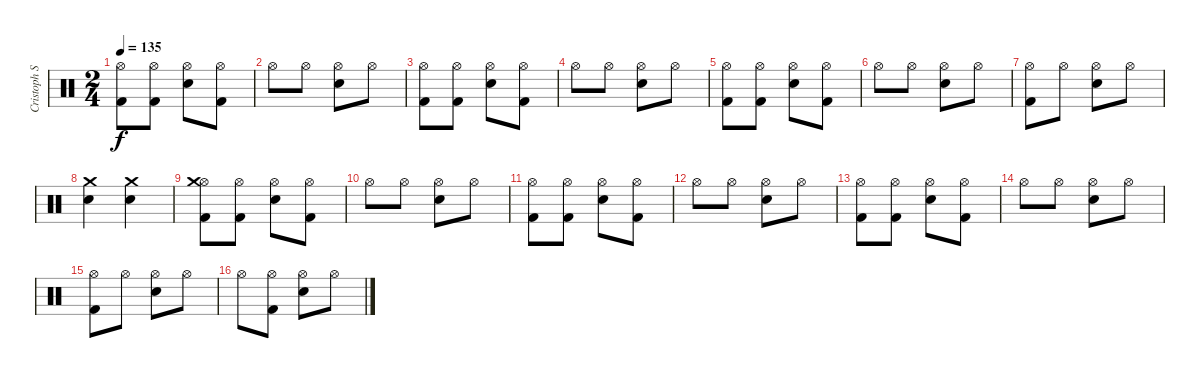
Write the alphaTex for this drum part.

\track ("Cristoph Schneider / Drums" "Cristoph S") {instrument percussion}
\staff {score}
\articulation defaults
\ts (2 4)
\tempo 135
\clef neutral
\ks c
("Hi-Hat (open)" "Kick (hit) 2").8{dy f} ("Hi-Hat (open)" "Kick (hit) 2").8 ("Hi-Hat (open)" "Electric Snare (hit)").8 ("Kick (hit) 2" "Hi-Hat (open)").8 |
"Hi-Hat (open)".8 "Hi-Hat (open)".8 ("Electric Snare (hit)" "Hi-Hat (open)").8 "Hi-Hat (open)".8 |
("Hi-Hat (open)" "Kick (hit) 2").8 ("Hi-Hat (open)" "Kick (hit) 2").8 ("Hi-Hat (open)" "Electric Snare (hit)").8 ("Hi-Hat (open)" "Kick (hit) 2").8 |
"Hi-Hat (open)".8 "Hi-Hat (open)".8 ("Electric Snare (hit)" "Hi-Hat (open)").8 "Hi-Hat (open)".8 |
("Hi-Hat (open)" "Kick (hit) 2").8 ("Hi-Hat (open)" "Kick (hit) 2").8 ("Hi-Hat (open)" "Electric Snare (hit)").8 ("Hi-Hat (open)" "Kick (hit) 2").8 |
"Hi-Hat (open)".8 "Hi-Hat (open)".8 ("Hi-Hat (open)" "Electric Snare (hit)").8 "Hi-Hat (open)".8 |
("Kick (hit) 2" "Hi-Hat (open)").8 "Hi-Hat (open)".8 ("Hi-Hat (open)" "Electric Snare (hit)").8 "Hi-Hat (open)".8 |
("Crash medium (hit)" "Electric Snare (hit)").4 ("Crash medium (hit)" "Electric Snare (hit)").4 |
("Hi-Hat (open)" "Kick (hit) 2" "Crash medium (hit)").8 ("Hi-Hat (open)" "Kick (hit) 2").8 ("Hi-Hat (open)" "Electric Snare (hit)").8 ("Kick (hit) 2" "Hi-Hat (open)").8 |
"Hi-Hat (open)".8 "Hi-Hat (open)".8 ("Electric Snare (hit)" "Hi-Hat (open)").8 "Hi-Hat (open)".8 |
("Hi-Hat (open)" "Kick (hit) 2").8 ("Hi-Hat (open)" "Kick (hit) 2").8 ("Hi-Hat (open)" "Electric Snare (hit)").8 ("Hi-Hat (open)" "Kick (hit) 2").8 |
"Hi-Hat (open)".8 "Hi-Hat (open)".8 ("Electric Snare (hit)" "Hi-Hat (open)").8 "Hi-Hat (open)".8 |
("Hi-Hat (open)" "Kick (hit) 2").8 ("Hi-Hat (open)" "Kick (hit) 2").8 ("Hi-Hat (open)" "Electric Snare (hit)").8 ("Hi-Hat (open)" "Kick (hit) 2").8 |
"Hi-Hat (open)".8 "Hi-Hat (open)".8 ("Hi-Hat (open)" "Electric Snare (hit)").8 "Hi-Hat (open)".8 |
("Kick (hit) 2" "Hi-Hat (open)").8 "Hi-Hat (open)".8 ("Hi-Hat (open)" "Electric Snare (hit)").8 "Hi-Hat (open)".8 |
"Hi-Hat (open)".8 ("Hi-Hat (open)" "Kick (hit) 2").8 ("Hi-Hat (open)" "Electric Snare (hit)").8 "Hi-Hat (open)".8
